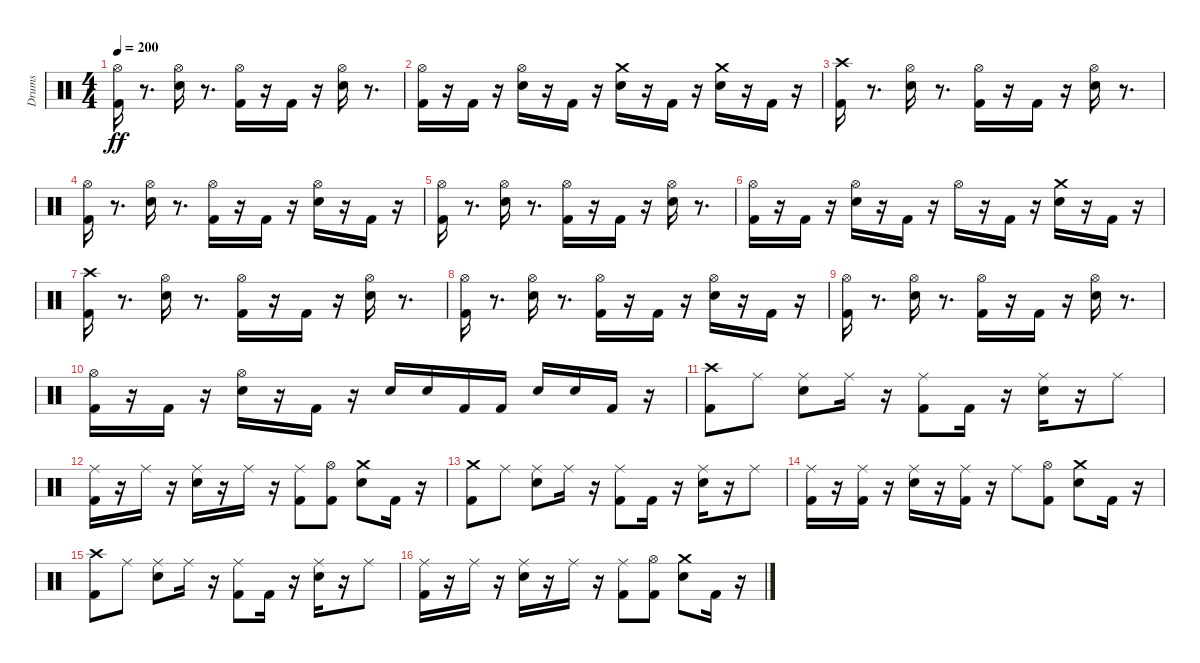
\track ("Drums" "Drums") {instrument percussion}
\staff {score}
\articulation defaults
\ts (4 4)
\tempo 200
\clef neutral
\ks c
("Kick (hit) 2" "Hi-Hat (open)").16{dy ff} r.8{d} ("Snare (hit) 2" "Hi-Hat (open)").16 r.8{d} ("Kick (hit) 2" "Hi-Hat (open)").16 r.16 "Kick (hit) 2".16 r.16 ("Snare (hit) 2" "Hi-Hat (open)").16 r.8{d} |
("Kick (hit) 2" "Hi-Hat (open)").16 r.16 "Kick (hit) 2".16 r.16 ("Snare (hit) 2" "Hi-Hat (open)").16 r.16 "Kick (hit) 2".16 r.16 ("Snare (hit) 2" "Crash medium (hit)").16 r.16 "Kick (hit) 2".16 r.16 ("Snare (hit) 2" "Crash medium (hit)").16 r.16 "Kick (hit) 2".16 r.16 |
("Kick (hit) 2" "Crash high (hit)").16 r.8{d} ("Snare (hit) 2" "Hi-Hat (open)").16 r.8{d} ("Kick (hit) 2" "Hi-Hat (open)").16 r.16 "Kick (hit) 2".16 r.16 ("Snare (hit) 2" "Hi-Hat (open)").16 r.8{d} |
("Kick (hit) 2" "Hi-Hat (open)").16 r.8{d} ("Snare (hit) 2" "Hi-Hat (open)").16 r.8{d} ("Kick (hit) 2" "Hi-Hat (open)").16 r.16 "Kick (hit) 2".16 r.16 ("Snare (hit) 2" "Hi-Hat (open)").16 r.16 "Kick (hit) 2".16 r.16 |
("Kick (hit) 2" "Hi-Hat (open)").16 r.8{d} ("Snare (hit) 2" "Hi-Hat (open)").16 r.8{d} ("Kick (hit) 2" "Hi-Hat (open)").16 r.16 "Kick (hit) 2".16 r.16 ("Snare (hit) 2" "Hi-Hat (open)").16 r.8{d} |
("Kick (hit) 2" "Hi-Hat (open)").16 r.16 "Kick (hit) 2".16 r.16 ("Snare (hit) 2" "Hi-Hat (open)").16 r.16 "Kick (hit) 2".16 r.16 "Hi-Hat (open)".16 r.16 "Kick (hit) 2".16 r.16 ("Snare (hit) 2" "Crash medium (hit)").16 r.16 "Kick (hit) 2".16 r.16 |
("Kick (hit) 2" "Crash high (hit)").16 r.8{d} ("Snare (hit) 2" "Hi-Hat (open)").16 r.8{d} ("Kick (hit) 2" "Hi-Hat (open)").16 r.16 "Kick (hit) 2".16 r.16 ("Snare (hit) 2" "Hi-Hat (open)").16 r.8{d} |
("Kick (hit) 2" "Hi-Hat (open)").16 r.8{d} ("Snare (hit) 2" "Hi-Hat (open)").16 r.8{d} ("Kick (hit) 2" "Hi-Hat (open)").16 r.16 "Kick (hit) 2".16 r.16 ("Snare (hit) 2" "Hi-Hat (open)").16 r.16 "Kick (hit) 2".16 r.16 |
("Kick (hit) 2" "Hi-Hat (open)").16 r.8{d} ("Snare (hit) 2" "Hi-Hat (open)").16 r.8{d} ("Kick (hit) 2" "Hi-Hat (open)").16 r.16 "Kick (hit) 2".16 r.16 ("Snare (hit) 2" "Hi-Hat (open)").16 r.8{d} |
("Kick (hit) 2" "Hi-Hat (open)").16 r.16 "Kick (hit) 2".16 r.16 ("Snare (hit) 2" "Hi-Hat (open)").16 r.16 "Kick (hit) 2".16 r.16 "Snare (hit) 2".16 "Snare (hit) 2".16 "Kick (hit) 2".16 "Kick (hit) 2".16 "Snare (hit) 2".16 "Snare (hit) 2".16 "Kick (hit) 2".16 r.16 |
("Kick (hit) 2" "Crash high (hit)").8 "Ride (middle)".8 ("Snare (hit) 2" "Ride (middle)").8 "Ride (middle)".16 r.16 ("Kick (hit) 2" "Ride (middle)").8 "Kick (hit) 2".16 r.16 ("Snare (hit) 2" "Ride (middle)").16 r.16 "Ride (middle)".8 |
("Kick (hit) 2" "Ride (middle)").16 r.16 "Ride (middle)".16 r.16 ("Snare (hit) 2" "Ride (middle)").16 r.16 "Ride (middle)".16 r.16 ("Kick (hit) 2" "Ride (middle)").8 ("Kick (hit) 2" "Hi-Hat (open)").8 ("Snare (hit) 2" "Crash medium (hit)").8 "Kick (hit) 2".16 r.16 |
("Kick (hit) 2" "Crash medium (hit)").8 "Ride (middle)".8 ("Snare (hit) 2" "Ride (middle)").8 "Ride (middle)".16 r.16 ("Kick (hit) 2" "Ride (middle)").8 "Kick (hit) 2".16 r.16 ("Snare (hit) 2" "Ride (middle)").16 r.16 "Ride (middle)".8 |
("Kick (hit) 2" "Ride (middle)").16 r.16 ("Kick (hit) 2" "Ride (middle)").16 r.16 ("Snare (hit) 2" "Ride (middle)").16 r.16 ("Kick (hit) 2" "Ride (middle)").16 r.16 "Ride (middle)".8 ("Kick (hit) 2" "Hi-Hat (open)").8 ("Snare (hit) 2" "Crash medium (hit)").8 "Kick (hit) 2".16 r.16 |
("Kick (hit) 2" "Crash high (hit)").8 "Ride (middle)".8 ("Snare (hit) 2" "Ride (middle)").8 "Ride (middle)".16 r.16 ("Kick (hit) 2" "Ride (middle)").8 "Kick (hit) 2".16 r.16 ("Snare (hit) 2" "Ride (middle)").16 r.16 "Ride (middle)".8 |
("Kick (hit) 2" "Ride (middle)").16 r.16 "Ride (middle)".16 r.16 ("Snare (hit) 2" "Ride (middle)").16 r.16 "Ride (middle)".16 r.16 ("Kick (hit) 2" "Ride (middle)").8 ("Kick (hit) 2" "Hi-Hat (open)").8 ("Snare (hit) 2" "Crash medium (hit)").8 "Kick (hit) 2".16 r.16
